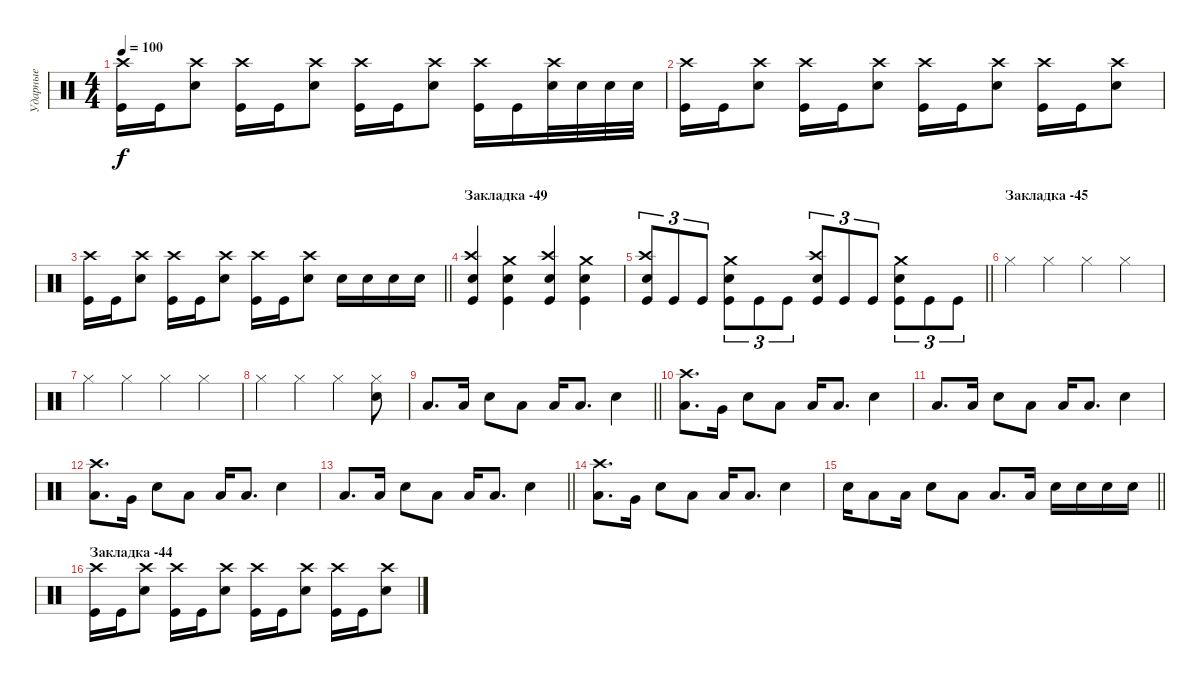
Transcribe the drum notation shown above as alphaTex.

\track ("Ударные" "Ударные") {instrument percussion}
\staff {score}
\articulation defaults
\ts (4 4)
\tempo 100
\clef neutral
\ks c
("Kick (hit)" "Crash high (hit)").16{dy f} "Kick (hit)".16 ("Crash high (hit)" "Snare (hit) 2").8 ("Kick (hit)" "Crash high (hit)").16 "Kick (hit)".16 ("Crash high (hit)" "Snare (hit) 2").8 ("Kick (hit)" "Crash high (hit)").16 "Kick (hit)".16 ("Crash high (hit)" "Snare (hit) 2").8 ("Kick (hit)" "Crash high (hit)").16 "Kick (hit)".16 ("Snare (hit) 2" "Crash high (hit)").32 "Snare (hit) 2".32 "Snare (hit) 2".32 "Snare (hit) 2".32 |
("Kick (hit)" "Crash high (hit)").16 "Kick (hit)".16 ("Crash high (hit)" "Snare (hit) 2").8 ("Kick (hit)" "Crash high (hit)").16 "Kick (hit)".16 ("Crash high (hit)" "Snare (hit) 2").8 ("Kick (hit)" "Crash high (hit)").16 "Kick (hit)".16 ("Crash high (hit)" "Snare (hit) 2").8 ("Kick (hit)" "Crash high (hit)").16 "Kick (hit)".16 ("Crash high (hit)" "Snare (hit) 2").8 |
\barLineRight lightlight
("Kick (hit)" "Crash high (hit)").16 "Kick (hit)".16 ("Crash high (hit)" "Snare (hit) 2").8 ("Kick (hit)" "Crash high (hit)").16 "Kick (hit)".16 ("Crash high (hit)" "Snare (hit) 2").8 ("Kick (hit)" "Crash high (hit)").16 "Kick (hit)".16 ("Crash high (hit)" "Snare (hit) 2").8 "Snare (hit) 2".16 "Snare (hit) 2".16 "Snare (hit) 2".16 "Snare (hit) 2".16 |
\section ("" "Закладка -49")
("Crash high (hit)" "Snare (hit) 2" "Kick (hit)").4 ("Crash medium (hit)" "Snare (hit) 2" "Kick (hit)").4 ("Crash high (hit)" "Snare (hit) 2" "Kick (hit)").4 ("Crash medium (hit)" "Snare (hit) 2" "Kick (hit)").4 |
\barLineRight lightlight
("Kick (hit)" "Crash high (hit)" "Snare (hit) 2").8{tu (3 2)} "Kick (hit)".8{tu (3 2)} "Kick (hit)".8{tu (3 2)} ("Kick (hit)" "Crash medium (hit)" "Snare (hit) 2").8{tu (3 2)} "Kick (hit)".8{tu (3 2)} "Kick (hit)".8{tu (3 2)} ("Kick (hit)" "Crash high (hit)" "Snare (hit) 2").8{tu (3 2)} "Kick (hit)".8{tu (3 2)} "Kick (hit)".8{tu (3 2)} ("Kick (hit)" "Crash medium (hit)" "Snare (hit) 2").8{tu (3 2)} "Kick (hit)".8{tu (3 2)} "Kick (hit)".8{tu (3 2)} |
\section ("" "Закладка -45")
"Hi-Hat (closed)".4 "Hi-Hat (closed)".4 "Hi-Hat (closed)".4 "Hi-Hat (closed)".4 |
"Hi-Hat (closed)".4 "Hi-Hat (closed)".4 "Hi-Hat (closed)".4 "Hi-Hat (closed)".4 |
"Hi-Hat (closed)".4 "Hi-Hat (closed)".4 "Hi-Hat (closed)".4 ("Hi-Hat (closed)" "Snare (hit) 2").8 |
\barLineRight lightlight "Low Floor Tom (hit)".8{d} "Low Floor Tom (hit)".16 "Snare (hit) 2".8 "Low Floor Tom (hit)".8 "Low Floor Tom (hit)".16 "Low Floor Tom (hit)".8{d} "Snare (hit) 2".4
|
("Low Floor Tom (hit)" "Crash high (hit)").8{d} "Very Low Tom (hit)".16 "Snare (hit) 2".8 "Low Floor Tom (hit)".8 "Low Floor Tom (hit)".16 "Low Floor Tom (hit)".8{d} "Snare (hit) 2".4 |
"Low Floor Tom (hit)".8{d} "Low Floor Tom (hit)".16 "Snare (hit) 2".8 "Low Floor Tom (hit)".8 "Low Floor Tom (hit)".16 "Low Floor Tom (hit)".8{d} "Snare (hit) 2".4 |
("Low Floor Tom (hit)" "Crash high (hit)").8{d} "Very Low Tom (hit)".16 "Snare (hit) 2".8 "Low Floor Tom (hit)".8 "Low Floor Tom (hit)".16 "Low Floor Tom (hit)".8{d} "Snare (hit) 2".4 |
\barLineRight lightlight "Low Floor Tom (hit)".8{d} "Low Floor Tom (hit)".16 "Snare (hit) 2".8 "Low Floor Tom (hit)".8 "Low Floor Tom (hit)".16 "Low Floor Tom (hit)".8{d} "Snare (hit) 2".4
|
("Low Floor Tom (hit)" "Crash high (hit)").8{d} "Very Low Tom (hit)".16 "Snare (hit) 2".8 "Low Floor Tom (hit)".8 "Low Floor Tom (hit)".16 "Low Floor Tom (hit)".8{d} "Snare (hit) 2".4 |
\barLineRight lightlight "Snare (hit) 2".16 "Low Floor Tom (hit)".8 "Low Floor Tom (hit)".16 "Snare (hit) 2".8 "Low Floor Tom (hit)".8 "Low Floor Tom (hit)".8{d} "Low Floor Tom (hit)".16 "Snare (hit) 2".16 "Snare (hit) 2".16 "Snare (hit) 2".16 "Snare (hit) 2".16
|
\section ("" "Закладка -44")
("Crash high (hit)" "Kick (hit)").16 "Kick (hit)".16 ("Snare (hit) 2" "Crash high (hit)").8 ("Kick (hit)" "Crash high (hit)").16 "Kick (hit)".16 ("Crash high (hit)" "Snare (hit) 2").8 ("Kick (hit)" "Crash high (hit)").16 "Kick (hit)".16 ("Crash high (hit)" "Snare (hit) 2").8 ("Kick (hit)" "Crash high (hit)").16 "Kick (hit)".16 ("Crash high (hit)" "Snare (hit) 2").8
